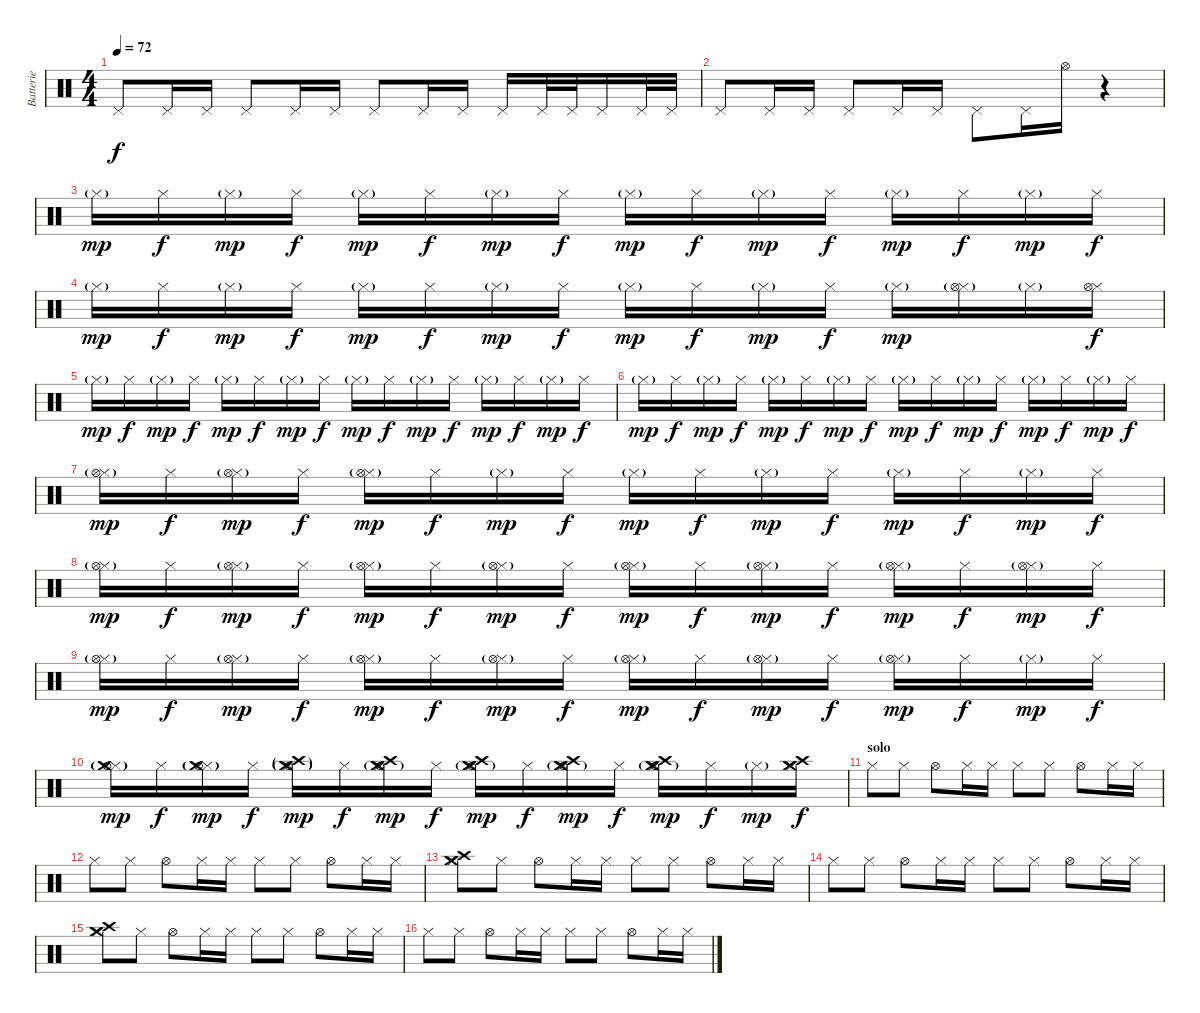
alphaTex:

\track ("Batterie" "Batterie") {instrument percussion}
\staff {score}
\articulation defaults
\ts (4 4)
\tempo 72
\clef neutral
\ks c "Pedal Hi-Hat (hit)".8{dy f} "Pedal Hi-Hat (hit)".16 "Pedal Hi-Hat (hit)".16 "Pedal Hi-Hat (hit)".8 "Pedal Hi-Hat (hit)".16 "Pedal Hi-Hat (hit)".16 "Pedal Hi-Hat (hit)".8 "Pedal Hi-Hat (hit)".16 "Pedal Hi-Hat (hit)".16 "Pedal Hi-Hat (hit)".16 "Pedal Hi-Hat (hit)".32 "Pedal Hi-Hat (hit)".32 "Pedal Hi-Hat (hit)".16 "Pedal Hi-Hat (hit)".32 "Pedal Hi-Hat (hit)".32
|
"Pedal Hi-Hat (hit)".8 "Pedal Hi-Hat (hit)".16 "Pedal Hi-Hat (hit)".16 "Pedal Hi-Hat (hit)".8 "Pedal Hi-Hat (hit)".16 "Pedal Hi-Hat (hit)".16 "Pedal Hi-Hat (hit)".8 "Pedal Hi-Hat (hit)".16 "Hi-Hat (open)".16 r.4 |
"Hi-Hat (closed)"{g}.16{dy mp} "Hi-Hat (closed)".16{dy f} "Hi-Hat (closed)"{g}.16{dy mp} "Hi-Hat (closed)".16{dy f} "Hi-Hat (closed)"{g}.16{dy mp} "Hi-Hat (closed)".16{dy f} "Hi-Hat (closed)"{g}.16{dy mp} "Hi-Hat (closed)".16{dy f} "Hi-Hat (closed)"{g}.16{dy mp} "Hi-Hat (closed)".16{dy f} "Hi-Hat (closed)"{g}.16{dy mp} "Hi-Hat (closed)".16{dy f} "Hi-Hat (closed)"{g}.16{dy mp} "Hi-Hat (closed)".16{dy f} "Hi-Hat (closed)"{g}.16{dy mp} "Hi-Hat (closed)".16{dy f} |
"Hi-Hat (closed)"{g}.16{dy mp} "Hi-Hat (closed)".16{dy f} "Hi-Hat (closed)"{g}.16{dy mp} "Hi-Hat (closed)".16{dy f} "Hi-Hat (closed)"{g}.16{dy mp} "Hi-Hat (closed)".16{dy f} "Hi-Hat (closed)"{g}.16{dy mp} "Hi-Hat (closed)".16{dy f} "Hi-Hat (closed)"{g}.16{dy mp} "Hi-Hat (closed)".16{dy f} "Hi-Hat (closed)"{g}.16{dy mp} "Hi-Hat (closed)".16{dy f} "Hi-Hat (closed)"{g}.16{dy mp} ("Hi-Hat (closed)" "Hi-Hat (open)"{g}).16 "Hi-Hat (closed)"{g}.16 ("Hi-Hat (closed)" "Hi-Hat (open)").16{dy f} |
"Hi-Hat (closed)"{g}.16{dy mp} "Hi-Hat (closed)".16{dy f} "Hi-Hat (closed)"{g}.16{dy mp} "Hi-Hat (closed)".16{dy f} "Hi-Hat (closed)"{g}.16{dy mp} "Hi-Hat (closed)".16{dy f} "Hi-Hat (closed)"{g}.16{dy mp} "Hi-Hat (closed)".16{dy f} "Hi-Hat (closed)"{g}.16{dy mp} "Hi-Hat (closed)".16{dy f} "Hi-Hat (closed)"{g}.16{dy mp} "Hi-Hat (closed)".16{dy f} "Hi-Hat (closed)"{g}.16{dy mp} "Hi-Hat (closed)".16{dy f} "Hi-Hat (closed)"{g}.16{dy mp} "Hi-Hat (closed)".16{dy f} |
"Hi-Hat (closed)"{g}.16{dy mp} "Hi-Hat (closed)".16{dy f} "Hi-Hat (closed)"{g}.16{dy mp} "Hi-Hat (closed)".16{dy f} "Hi-Hat (closed)"{g}.16{dy mp} "Hi-Hat (closed)".16{dy f} "Hi-Hat (closed)"{g}.16{dy mp} "Hi-Hat (closed)".16{dy f} "Hi-Hat (closed)"{g}.16{dy mp} "Hi-Hat (closed)".16{dy f} "Hi-Hat (closed)"{g}.16{dy mp} "Hi-Hat (closed)".16{dy f} "Hi-Hat (closed)"{g}.16{dy mp} "Hi-Hat (closed)".16{dy f} "Hi-Hat (closed)"{g}.16{dy mp} "Hi-Hat (closed)".16{dy f} |
("Hi-Hat (closed)"{g} "Hi-Hat (open)"{g}).16{dy mp} "Hi-Hat (closed)".16{dy f} ("Hi-Hat (closed)"{g} "Hi-Hat (open)"{g}).16{dy mp} "Hi-Hat (closed)".16{dy f} ("Hi-Hat (closed)"{g} "Hi-Hat (open)").16{dy mp} "Hi-Hat (closed)".16{dy f} "Hi-Hat (closed)"{g}.16{dy mp} "Hi-Hat (closed)".16{dy f} "Hi-Hat (closed)"{g}.16{dy mp} "Hi-Hat (closed)".16{dy f} "Hi-Hat (closed)"{g}.16{dy mp} "Hi-Hat (closed)".16{dy f} "Hi-Hat (closed)"{g}.16{dy mp} "Hi-Hat (closed)".16{dy f} "Hi-Hat (closed)"{g}.16{dy mp} "Hi-Hat (closed)".16{dy f} |
("Hi-Hat (closed)"{g} "Hi-Hat (open)"{g}).16{dy mp} "Hi-Hat (closed)".16{dy f} ("Hi-Hat (closed)"{g} "Hi-Hat (open)"{g}).16{dy mp} "Hi-Hat (closed)".16{dy f} ("Hi-Hat (closed)"{g} "Hi-Hat (open)").16{dy mp} "Hi-Hat (closed)".16{dy f} ("Hi-Hat (closed)"{g} "Hi-Hat (open)").16{dy mp} "Hi-Hat (closed)".16{dy f} ("Hi-Hat (closed)"{g} "Hi-Hat (open)").16{dy mp} "Hi-Hat (closed)".16{dy f} ("Hi-Hat (closed)"{g} "Hi-Hat (open)").16{dy mp} "Hi-Hat (closed)".16{dy f} ("Hi-Hat (closed)"{g} "Hi-Hat (open)").16{dy mp} "Hi-Hat (closed)".16{dy f} ("Hi-Hat (closed)"{g} "Hi-Hat (open)").16{dy mp} "Hi-Hat (closed)".16{dy f} |
("Hi-Hat (closed)"{g} "Hi-Hat (open)").16{dy mp} "Hi-Hat (closed)".16{dy f} ("Hi-Hat (closed)"{g} "Hi-Hat (open)").16{dy mp} "Hi-Hat (closed)".16{dy f} ("Hi-Hat (closed)"{g} "Hi-Hat (open)").16{dy mp} "Hi-Hat (closed)".16{dy f} ("Hi-Hat (closed)"{g} "Hi-Hat (open)").16{dy mp} "Hi-Hat (closed)".16{dy f} ("Hi-Hat (closed)"{g} "Hi-Hat (open)").16{dy mp} "Hi-Hat (closed)".16{dy f} ("Hi-Hat (closed)"{g} "Hi-Hat (open)").16{dy mp} "Hi-Hat (closed)".16{dy f} ("Hi-Hat (closed)"{g} "Hi-Hat (open)").16{dy mp} "Hi-Hat (closed)".16{dy f} "Hi-Hat (closed)"{g}.16{dy mp} "Hi-Hat (closed)".16{dy f} |
("Hi-Hat (closed)"{g} "Hi-Hat (open)" "Crash medium (hit)"{g}).16{dy mp} "Hi-Hat (closed)".16{dy f} ("Hi-Hat (closed)"{g} "Hi-Hat (open)" "Crash medium (hit)"{g}).16{dy mp} "Hi-Hat (closed)".16{dy f} ("Hi-Hat (closed)"{g} "Hi-Hat (open)" "Crash medium (hit)"{g} "Crash high (hit)"{g}).16{dy mp} "Hi-Hat (closed)".16{dy f} ("Hi-Hat (closed)"{g} "Hi-Hat (open)" "Crash medium (hit)" "Crash high (hit)").16{dy mp} "Hi-Hat (closed)".16{dy f} ("Hi-Hat (closed)"{g} "Hi-Hat (open)" "Crash medium (hit)" "Crash high (hit)").16{dy mp} "Hi-Hat (closed)".16{dy f} ("Hi-Hat (closed)"{g} "Hi-Hat (open)" "Crash medium (hit)" "Crash high (hit)").16{dy mp} "Hi-Hat (closed)".16{dy f} ("Hi-Hat (closed)"{g} "Hi-Hat (open)" "Crash medium (hit)" "Crash high (hit)").16{dy mp} "Hi-Hat (closed)".16{dy f} "Hi-Hat (closed)"{g}.16{dy mp} ("Hi-Hat (closed)" "Crash medium (hit)" "Crash high (hit)").16{dy f} |
\section ("" "solo")
"Hi-Hat (closed)".8 "Hi-Hat (closed)".8 "Hi-Hat (open)".8 "Hi-Hat (closed)".16 "Hi-Hat (closed)".16 "Hi-Hat (closed)".8 "Hi-Hat (closed)".8 "Hi-Hat (open)".8 "Hi-Hat (closed)".16 "Hi-Hat (closed)".16 |
"Hi-Hat (closed)".8 "Hi-Hat (closed)".8 "Hi-Hat (open)".8 "Hi-Hat (closed)".16 "Hi-Hat (closed)".16 "Hi-Hat (closed)".8 "Hi-Hat (closed)".8 "Hi-Hat (open)".8 "Hi-Hat (closed)".16 "Hi-Hat (closed)".16 |
("Hi-Hat (closed)" "Crash high (hit)" "Crash medium (hit)").8 "Hi-Hat (closed)".8 "Hi-Hat (open)".8 "Hi-Hat (closed)".16 "Hi-Hat (closed)".16 "Hi-Hat (closed)".8 "Hi-Hat (closed)".8 "Hi-Hat (open)".8 "Hi-Hat (closed)".16 "Hi-Hat (closed)".16 |
"Hi-Hat (closed)".8 "Hi-Hat (closed)".8 "Hi-Hat (open)".8 "Hi-Hat (closed)".16 "Hi-Hat (closed)".16 "Hi-Hat (closed)".8 "Hi-Hat (closed)".8 "Hi-Hat (open)".8 "Hi-Hat (closed)".16 "Hi-Hat (closed)".16 |
("Hi-Hat (closed)" "Crash high (hit)" "Crash medium (hit)").8 "Hi-Hat (closed)".8 "Hi-Hat (open)".8 "Hi-Hat (closed)".16 "Hi-Hat (closed)".16 "Hi-Hat (closed)".8 "Hi-Hat (closed)".8 "Hi-Hat (open)".8 "Hi-Hat (closed)".16 "Hi-Hat (closed)".16 |
"Hi-Hat (closed)".8 "Hi-Hat (closed)".8 "Hi-Hat (open)".8 "Hi-Hat (closed)".16 "Hi-Hat (closed)".16 "Hi-Hat (closed)".8 "Hi-Hat (closed)".8 "Hi-Hat (open)".8 "Hi-Hat (closed)".16 "Hi-Hat (closed)".16
